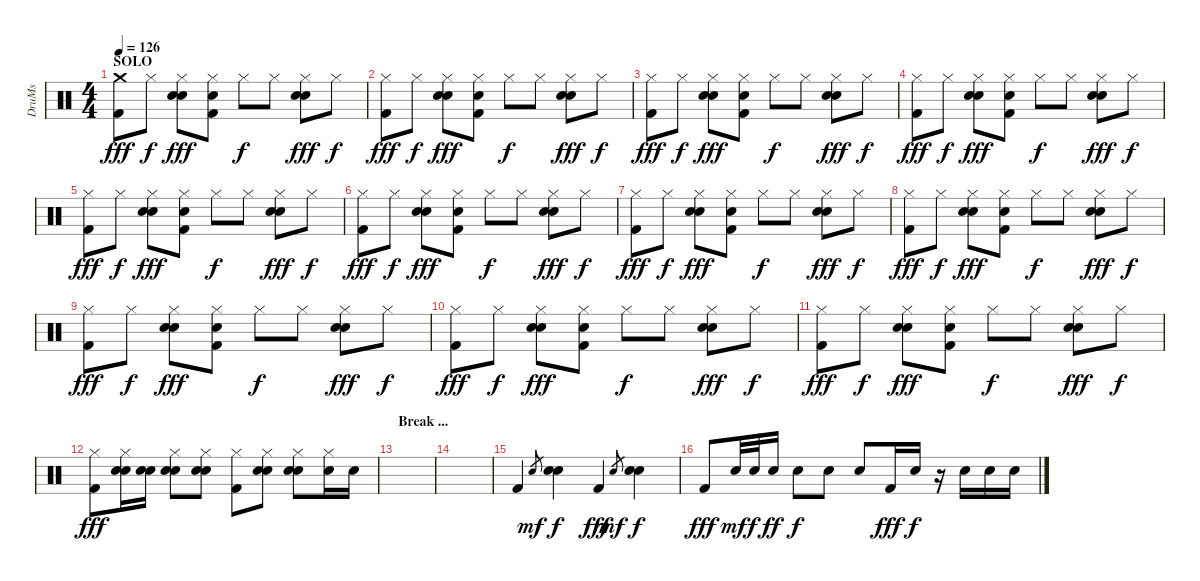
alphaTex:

\track ("DruMs" "DruMs") {instrument percussion}
\staff {score}
\articulation defaults
\ts (4 4)
\section ("" "SOLO")
\tempo 126
\clef neutral
\ks c
("Crash medium (hit)" "Kick (hit) 2").8{dy fff} "Hi-Hat (closed)".8{dy f} ("Hi-Hat (closed)" "Snare (hit) 2" "Hand Clap (hit)").8{dy fff} ("Hi-Hat (closed)" "Hand Clap (hit)" "Kick (hit) 2").8 "Hi-Hat (closed)".8{dy f} "Hi-Hat (closed)".8 ("Hi-Hat (closed)" "Snare (hit) 2" "Hand Clap (hit)").8{dy fff} "Hi-Hat (closed)".8{dy f} |
("Hi-Hat (closed)" "Kick (hit) 2").8{dy fff} "Hi-Hat (closed)".8{dy f} ("Hi-Hat (closed)" "Snare (hit) 2" "Hand Clap (hit)").8{dy fff} ("Hi-Hat (closed)" "Hand Clap (hit)" "Kick (hit) 2").8 "Hi-Hat (closed)".8{dy f} "Hi-Hat (closed)".8 ("Hi-Hat (closed)" "Snare (hit) 2" "Hand Clap (hit)").8{dy fff} "Hi-Hat (closed)".8{dy f} |
("Hi-Hat (closed)" "Kick (hit) 2").8{dy fff} "Hi-Hat (closed)".8{dy f} ("Hi-Hat (closed)" "Snare (hit) 2" "Hand Clap (hit)").8{dy fff} ("Hi-Hat (closed)" "Hand Clap (hit)" "Kick (hit) 2").8 "Hi-Hat (closed)".8{dy f} "Hi-Hat (closed)".8 ("Hi-Hat (closed)" "Snare (hit) 2" "Hand Clap (hit)").8{dy fff} "Hi-Hat (closed)".8{dy f} |
("Hi-Hat (closed)" "Kick (hit) 2").8{dy fff} "Hi-Hat (closed)".8{dy f} ("Hi-Hat (closed)" "Snare (hit) 2" "Hand Clap (hit)").8{dy fff} ("Hi-Hat (closed)" "Hand Clap (hit)" "Kick (hit) 2").8 "Hi-Hat (closed)".8{dy f} "Hi-Hat (closed)".8 ("Hi-Hat (closed)" "Snare (hit) 2" "Hand Clap (hit)").8{dy fff} "Hi-Hat (closed)".8{dy f} |
("Hi-Hat (closed)" "Kick (hit) 2").8{dy fff} "Hi-Hat (closed)".8{dy f} ("Hi-Hat (closed)" "Snare (hit) 2" "Hand Clap (hit)").8{dy fff} ("Hi-Hat (closed)" "Hand Clap (hit)" "Kick (hit) 2").8 "Hi-Hat (closed)".8{dy f} "Hi-Hat (closed)".8 ("Hi-Hat (closed)" "Snare (hit) 2" "Hand Clap (hit)").8{dy fff} "Hi-Hat (closed)".8{dy f} |
("Hi-Hat (closed)" "Kick (hit) 2").8{dy fff} "Hi-Hat (closed)".8{dy f} ("Hi-Hat (closed)" "Snare (hit) 2" "Hand Clap (hit)").8{dy fff} ("Hi-Hat (closed)" "Hand Clap (hit)" "Kick (hit) 2").8 "Hi-Hat (closed)".8{dy f} "Hi-Hat (closed)".8 ("Hi-Hat (closed)" "Snare (hit) 2" "Hand Clap (hit)").8{dy fff} "Hi-Hat (closed)".8{dy f} |
("Hi-Hat (closed)" "Kick (hit) 2").8{dy fff} "Hi-Hat (closed)".8{dy f} ("Hi-Hat (closed)" "Snare (hit) 2" "Hand Clap (hit)").8{dy fff} ("Hi-Hat (closed)" "Hand Clap (hit)" "Kick (hit) 2").8 "Hi-Hat (closed)".8{dy f} "Hi-Hat (closed)".8 ("Hi-Hat (closed)" "Snare (hit) 2" "Hand Clap (hit)").8{dy fff} "Hi-Hat (closed)".8{dy f} |
("Hi-Hat (closed)" "Kick (hit) 2").8{dy fff} "Hi-Hat (closed)".8{dy f} ("Hi-Hat (closed)" "Snare (hit) 2" "Hand Clap (hit)").8{dy fff} ("Hi-Hat (closed)" "Hand Clap (hit)" "Kick (hit) 2").8 "Hi-Hat (closed)".8{dy f} "Hi-Hat (closed)".8 ("Hi-Hat (closed)" "Snare (hit) 2" "Hand Clap (hit)").8{dy fff} "Hi-Hat (closed)".8{dy f} |
("Hi-Hat (closed)" "Kick (hit) 2").8{dy fff} "Hi-Hat (closed)".8{dy f} ("Hi-Hat (closed)" "Snare (hit) 2" "Hand Clap (hit)").8{dy fff} ("Hi-Hat (closed)" "Hand Clap (hit)" "Kick (hit) 2").8 "Hi-Hat (closed)".8{dy f} "Hi-Hat (closed)".8 ("Hi-Hat (closed)" "Snare (hit) 2" "Hand Clap (hit)").8{dy fff} "Hi-Hat (closed)".8{dy f} |
("Hi-Hat (closed)" "Kick (hit) 2").8{dy fff} "Hi-Hat (closed)".8{dy f} ("Hi-Hat (closed)" "Snare (hit) 2" "Hand Clap (hit)").8{dy fff} ("Hi-Hat (closed)" "Hand Clap (hit)" "Kick (hit) 2").8 "Hi-Hat (closed)".8{dy f} "Hi-Hat (closed)".8 ("Hi-Hat (closed)" "Snare (hit) 2" "Hand Clap (hit)").8{dy fff} "Hi-Hat (closed)".8{dy f} |
("Hi-Hat (closed)" "Kick (hit) 2").8{dy fff} "Hi-Hat (closed)".8{dy f} ("Hi-Hat (closed)" "Snare (hit) 2" "Hand Clap (hit)").8{dy fff} ("Hi-Hat (closed)" "Hand Clap (hit)" "Kick (hit) 2").8 "Hi-Hat (closed)".8{dy f} "Hi-Hat (closed)".8 ("Hi-Hat (closed)" "Snare (hit) 2" "Hand Clap (hit)").8{dy fff} "Hi-Hat (closed)".8{dy f} |
("Hi-Hat (closed)" "Kick (hit) 2").8{dy fff} ("Hi-Hat (closed)" "Snare (hit) 2" "Hand Clap (hit)").16 ("Snare (hit) 2" "Hand Clap (hit)").16 ("Hi-Hat (closed)" "Snare (hit) 2" "Hand Clap (hit)").8 ("Hi-Hat (closed)" "Snare (hit) 2" "Hand Clap (hit)").8 ("Hi-Hat (closed)" "Kick (hit) 2").8 ("Hi-Hat (closed)" "Snare (hit) 2" "Hand Clap (hit)").8 ("Hi-Hat (closed)" "Snare (hit) 2" "Hand Clap (hit)").8 ("Hi-Hat (closed)" "Hand Clap (hit)").16 "Hand Clap (hit)".16 |
\section ("" "Break ...")
|
|
"Kick (hit) 2".4 "Snare (hit) 2".8{gr dy mf} ("Snare (hit) 2" "Snare (hit) 2").4{dy f} "Kick (hit) 2".4{dy fff} "Snare (hit) 2".8{gr dy mf} ("Snare (hit) 2" "Snare (hit) 2").4{dy f} |
"Kick (hit) 2".8{dy fff} "Snare (hit) 2".32{dy mf} "Snare (hit) 2".32{dy f} "Snare (hit) 2".16{dy ff} "Snare (hit) 2".8{dy f} "Snare (hit) 2".8 "Snare (hit) 2".8 "Kick (hit) 2".16{dy fff} "Snare (hit) 2".16{dy f} r.16 "Snare (hit) 2".16 "Snare (hit) 2".16 "Snare (hit) 2".16
